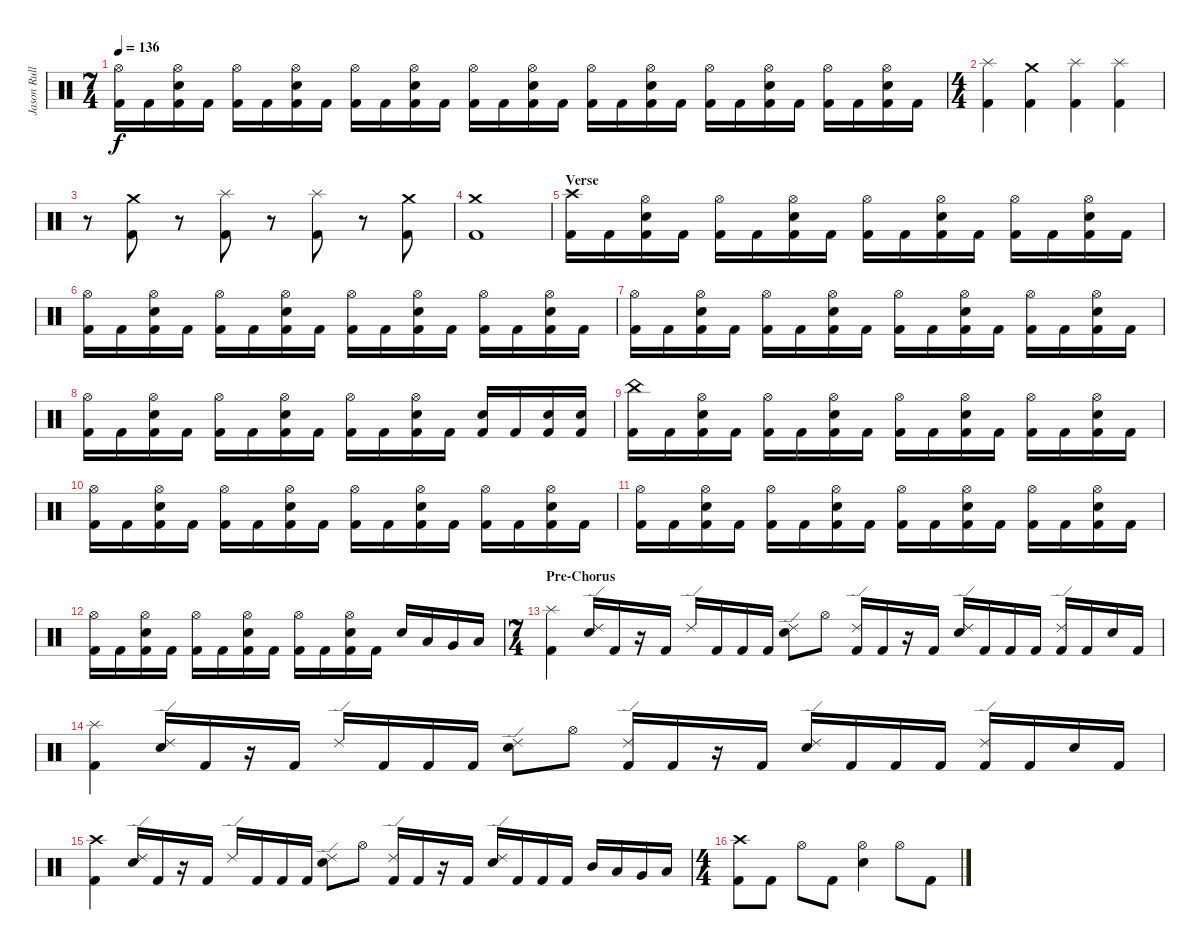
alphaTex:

\track ("Jason Rullo" "Jason Rull") {instrument percussion}
\staff {score}
\articulation defaults
\ts (7 4)
\tempo 136
\clef neutral
\ks c
("Hi-Hat (open)" "Kick (hit) 2").16{dy f} "Kick (hit) 2".16 ("Hi-Hat (open)" "Electric Snare (hit)" "Kick (hit) 2").16 "Kick (hit) 2".16 ("Hi-Hat (open)" "Kick (hit) 2").16 "Kick (hit) 2".16 ("Hi-Hat (open)" "Electric Snare (hit)" "Kick (hit) 2").16 "Kick (hit) 2".16 ("Hi-Hat (open)" "Kick (hit) 2").16 "Kick (hit) 2".16 ("Hi-Hat (open)" "Electric Snare (hit)" "Kick (hit) 2").16 "Kick (hit) 2".16 ("Hi-Hat (open)" "Kick (hit) 2").16 "Kick (hit) 2".16 ("Hi-Hat (open)" "Electric Snare (hit)" "Kick (hit) 2").16 "Kick (hit) 2".16 ("Hi-Hat (open)" "Kick (hit) 2").16 "Kick (hit) 2".16 ("Hi-Hat (open)" "Electric Snare (hit)" "Kick (hit) 2").16 "Kick (hit) 2".16 ("Hi-Hat (open)" "Kick (hit) 2").16 "Kick (hit) 2".16 ("Hi-Hat (open)" "Electric Snare (hit)" "Kick (hit) 2").16 "Kick (hit) 2".16 ("Hi-Hat (open)" "Kick (hit) 2").16 "Kick (hit) 2".16 ("Hi-Hat (open)" "Electric Snare (hit)" "Kick (hit) 2").16 "Kick (hit) 2".16 |
\ts (4 4)
("Splash (hit)" "Kick (hit) 2").4 ("Crash medium (hit)" "Kick (hit) 2").4 ("Splash (hit)" "Kick (hit) 2").4 ("Splash (hit)" "Kick (hit) 2").4 |
r.8 ("Crash medium (hit)" "Kick (hit) 2").8 r.8 ("Splash (hit)" "Kick (hit) 2").8 r.8 ("Splash (hit)" "Kick (hit) 2").8 r.8 ("Crash medium (hit)" "Kick (hit) 2").8 |
("Crash medium (hit)" "Kick (hit) 2").1 |
\section ("" "Verse")
("Kick (hit) 2" "Crash high (hit)").16 "Kick (hit) 2".16 ("Hi-Hat (open)" "Electric Snare (hit)" "Kick (hit) 2").16 "Kick (hit) 2".16 ("Hi-Hat (open)" "Kick (hit) 2").16 "Kick (hit) 2".16 ("Hi-Hat (open)" "Electric Snare (hit)" "Kick (hit) 2").16 "Kick (hit) 2".16 ("Hi-Hat (open)" "Kick (hit) 2").16 "Kick (hit) 2".16 ("Hi-Hat (open)" "Electric Snare (hit)" "Kick (hit) 2").16 "Kick (hit) 2".16 ("Hi-Hat (open)" "Kick (hit) 2").16 "Kick (hit) 2".16 ("Hi-Hat (open)" "Electric Snare (hit)" "Kick (hit) 2").16 "Kick (hit) 2".16 |
("Kick (hit) 2" "Hi-Hat (open)").16 "Kick (hit) 2".16 ("Kick (hit) 2" "Electric Snare (hit)" "Hi-Hat (open)").16 "Kick (hit) 2".16 ("Kick (hit) 2" "Hi-Hat (open)").16 "Kick (hit) 2".16 ("Kick (hit) 2" "Electric Snare (hit)" "Hi-Hat (open)").16 "Kick (hit) 2".16 ("Kick (hit) 2" "Hi-Hat (open)").16 "Kick (hit) 2".16 ("Kick (hit) 2" "Electric Snare (hit)" "Hi-Hat (open)").16 "Kick (hit) 2".16 ("Kick (hit) 2" "Hi-Hat (open)").16 "Kick (hit) 2".16 ("Kick (hit) 2" "Electric Snare (hit)" "Hi-Hat (open)").16 "Kick (hit) 2".16 |
("Kick (hit) 2" "Hi-Hat (open)").16 "Kick (hit) 2".16 ("Kick (hit) 2" "Electric Snare (hit)" "Hi-Hat (open)").16 "Kick (hit) 2".16 ("Kick (hit) 2" "Hi-Hat (open)").16 "Kick (hit) 2".16 ("Kick (hit) 2" "Electric Snare (hit)" "Hi-Hat (open)").16 "Kick (hit) 2".16 ("Kick (hit) 2" "Hi-Hat (open)").16 "Kick (hit) 2".16 ("Kick (hit) 2" "Electric Snare (hit)" "Hi-Hat (open)").16 "Kick (hit) 2".16 ("Kick (hit) 2" "Hi-Hat (open)").16 "Kick (hit) 2".16 ("Kick (hit) 2" "Electric Snare (hit)" "Hi-Hat (open)").16 "Kick (hit) 2".16 |
("Kick (hit) 2" "Hi-Hat (open)").16 "Kick (hit) 2".16 ("Kick (hit) 2" "Electric Snare (hit)" "Hi-Hat (open)").16 "Kick (hit) 2".16 ("Kick (hit) 2" "Hi-Hat (open)").16 "Kick (hit) 2".16 ("Kick (hit) 2" "Electric Snare (hit)" "Hi-Hat (open)").16 "Kick (hit) 2".16 ("Kick (hit) 2" "Hi-Hat (open)").16 "Kick (hit) 2".16 ("Kick (hit) 2" "Electric Snare (hit)" "Hi-Hat (open)").16 "Kick (hit) 2".16 ("Kick (hit) 2" "Electric Snare (hit)").16 "Kick (hit) 2".16 ("Kick (hit) 2" "Electric Snare (hit)").16 ("Kick (hit) 2" "Electric Snare (hit)").16 |
("China (hit)" "Kick (hit) 2").16 "Kick (hit) 2".16 ("Kick (hit) 2" "Electric Snare (hit)" "Hi-Hat (open)").16 "Kick (hit) 2".16 ("Kick (hit) 2" "Hi-Hat (open)").16 "Kick (hit) 2".16 ("Kick (hit) 2" "Electric Snare (hit)" "Hi-Hat (open)").16 "Kick (hit) 2".16 ("Kick (hit) 2" "Hi-Hat (open)").16 "Kick (hit) 2".16 ("Kick (hit) 2" "Electric Snare (hit)" "Hi-Hat (open)").16 "Kick (hit) 2".16 ("Kick (hit) 2" "Hi-Hat (open)").16 "Kick (hit) 2".16 ("Kick (hit) 2" "Electric Snare (hit)" "Hi-Hat (open)").16 "Kick (hit) 2".16 |
("Kick (hit) 2" "Hi-Hat (open)").16 "Kick (hit) 2".16 ("Kick (hit) 2" "Electric Snare (hit)" "Hi-Hat (open)").16 "Kick (hit) 2".16 ("Kick (hit) 2" "Hi-Hat (open)").16 "Kick (hit) 2".16 ("Kick (hit) 2" "Electric Snare (hit)" "Hi-Hat (open)").16 "Kick (hit) 2".16 ("Kick (hit) 2" "Hi-Hat (open)").16 "Kick (hit) 2".16 ("Kick (hit) 2" "Electric Snare (hit)" "Hi-Hat (open)").16 "Kick (hit) 2".16 ("Kick (hit) 2" "Hi-Hat (open)").16 "Kick (hit) 2".16 ("Kick (hit) 2" "Electric Snare (hit)" "Hi-Hat (open)").16 "Kick (hit) 2".16 |
("Kick (hit) 2" "Hi-Hat (open)").16 "Kick (hit) 2".16 ("Kick (hit) 2" "Electric Snare (hit)" "Hi-Hat (open)").16 "Kick (hit) 2".16 ("Kick (hit) 2" "Hi-Hat (open)").16 "Kick (hit) 2".16 ("Kick (hit) 2" "Electric Snare (hit)" "Hi-Hat (open)").16 "Kick (hit) 2".16 ("Kick (hit) 2" "Hi-Hat (open)").16 "Kick (hit) 2".16 ("Kick (hit) 2" "Electric Snare (hit)" "Hi-Hat (open)").16 "Kick (hit) 2".16 ("Kick (hit) 2" "Hi-Hat (open)").16 "Kick (hit) 2".16 ("Kick (hit) 2" "Electric Snare (hit)" "Hi-Hat (open)").16 "Kick (hit) 2".16 |
("Kick (hit) 2" "Hi-Hat (open)").16 "Kick (hit) 2".16 ("Kick (hit) 2" "Electric Snare (hit)" "Hi-Hat (open)").16 "Kick (hit) 2".16 ("Kick (hit) 2" "Hi-Hat (open)").16 "Kick (hit) 2".16 ("Kick (hit) 2" "Electric Snare (hit)" "Hi-Hat (open)").16 "Kick (hit) 2".16 ("Kick (hit) 2" "Hi-Hat (open)").16 "Kick (hit) 2".16 ("Kick (hit) 2" "Electric Snare (hit)" "Hi-Hat (open)").16 "Kick (hit) 2".16 "Electric Snare (hit)".16 "Low Tom (hit)".16 "Very Low Tom (hit)".16 "Low Floor Tom (hit)".16 |
\ts (7 4)
\section ("" "Pre-Chorus")
("Splash (hit)" "Kick (hit) 2").4 ("Electric Snare (hit)" "Ride (edge) 2").16 "Kick (hit) 2".16 r.16 "Kick (hit) 2".16 "Ride (edge) 2".16 "Kick (hit) 2".16 "Kick (hit) 2".16 "Kick (hit) 2".16 ("Electric Snare (hit)" "Ride (edge) 2").8 "Hi-Hat (open)".8 ("Kick (hit) 2" "Ride (edge) 2").16 "Kick (hit) 2".16 r.16 "Kick (hit) 2".16 ("Electric Snare (hit)" "Ride (edge) 2").16 "Kick (hit) 2".16 "Kick (hit) 2".16 "Kick (hit) 2".16 ("Kick (hit) 2" "Ride (edge) 2").16 "Kick (hit) 2".16 "Electric Snare (hit)".16 "Kick (hit) 2".16 |
("Splash (hit)" "Kick (hit) 2").4 ("Electric Snare (hit)" "Ride (edge) 2").16 "Kick (hit) 2".16 r.16 "Kick (hit) 2".16 "Ride (edge) 2".16 "Kick (hit) 2".16 "Kick (hit) 2".16 "Kick (hit) 2".16 ("Electric Snare (hit)" "Ride (edge) 2").8 "Hi-Hat (open)".8 ("Kick (hit) 2" "Ride (edge) 2").16 "Kick (hit) 2".16 r.16 "Kick (hit) 2".16 ("Electric Snare (hit)" "Ride (edge) 2").16 "Kick (hit) 2".16 "Kick (hit) 2".16 "Kick (hit) 2".16 ("Kick (hit) 2" "Ride (edge) 2").16 "Kick (hit) 2".16 "Electric Snare (hit)".16 "Kick (hit) 2".16 |
("Crash high (hit)" "Kick (hit) 2").4 ("Electric Snare (hit)" "Ride (edge) 2").16 "Kick (hit) 2".16 r.16 "Kick (hit) 2".16 "Ride (edge) 2".16 "Kick (hit) 2".16 "Kick (hit) 2".16 "Kick (hit) 2".16 ("Electric Snare (hit)" "Ride (edge) 2").8 "Hi-Hat (open)".8 ("Kick (hit) 2" "Ride (edge) 2").16 "Kick (hit) 2".16 r.16 "Kick (hit) 2".16 ("Electric Snare (hit)" "Ride (edge) 2").16 "Kick (hit) 2".16 "Kick (hit) 2".16 "Kick (hit) 2".16 "Mid Tom (hit)".16 "Low Tom (hit)".16 "Very Low Tom (hit)".16 "Low Floor Tom (hit)".16 |
\ts (4 4)
("Kick (hit) 2" "Crash high (hit)").8 "Kick (hit) 2".8 "Hi-Hat (open)".8 "Kick (hit) 2".8 ("Electric Snare (hit)" "Hi-Hat (open)").4 "Hi-Hat (open)".8 "Kick (hit) 2".8
